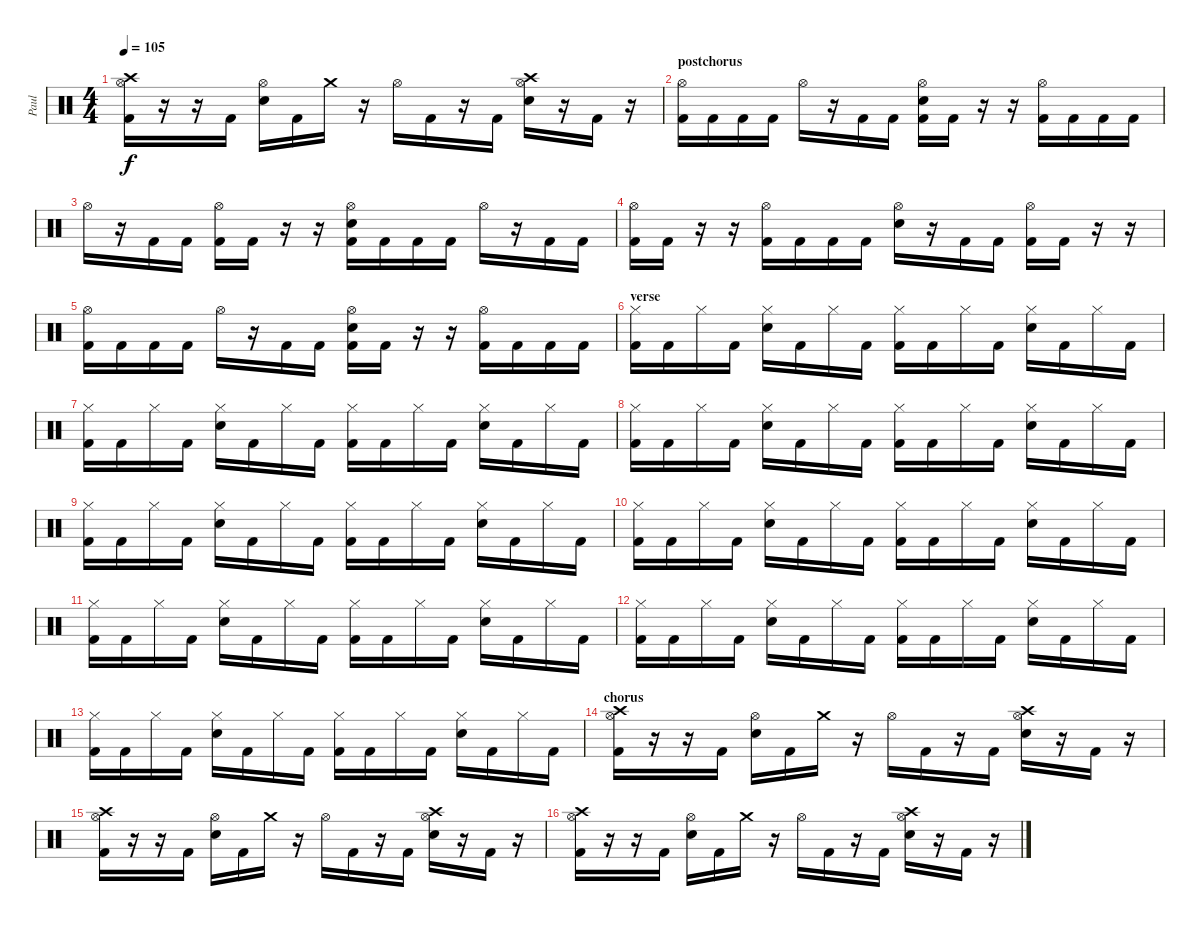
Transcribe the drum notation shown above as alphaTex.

\track ("Paul" "Paul") {instrument percussion}
\staff {score}
\articulation defaults
\ts (4 4)
\tempo 105
\clef neutral
\ks c
("Crash high (hit)" "Hi-Hat (open)" "Kick (hit) 2").16{dy f} r.16 r.16 "Kick (hit) 2".16 ("Hi-Hat (open)" "Snare (hit) 2").16 "Kick (hit) 2".16 "Crash medium (hit)".16 r.16 "Hi-Hat (open)".16 "Kick (hit) 2".16 r.16 "Kick (hit) 2".16 ("Crash high (hit)" "Hi-Hat (open)" "Snare (hit) 2").16 r.16 "Kick (hit) 2".16 r.16 |
\section ("" "postchorus")
("Hi-Hat (open)" "Kick (hit) 2").16 "Kick (hit) 2".16 "Kick (hit) 2".16 "Kick (hit) 2".16 "Hi-Hat (open)".16 r.16 "Kick (hit) 2".16 "Kick (hit) 2".16 ("Hi-Hat (open)" "Snare (hit) 2" "Kick (hit) 2").16 "Kick (hit) 2".16 r.16 r.16 ("Hi-Hat (open)" "Kick (hit) 2").16 "Kick (hit) 2".16 "Kick (hit) 2".16 "Kick (hit) 2".16 |
"Hi-Hat (open)".16 r.16 "Kick (hit) 2".16 "Kick (hit) 2".16 ("Hi-Hat (open)" "Kick (hit) 2").16 "Kick (hit) 2".16 r.16 r.16 ("Hi-Hat (open)" "Snare (hit) 2" "Kick (hit) 2").16 "Kick (hit) 2".16 "Kick (hit) 2".16 "Kick (hit) 2".16 "Hi-Hat (open)".16 r.16 "Kick (hit) 2".16 "Kick (hit) 2".16 |
("Hi-Hat (open)" "Kick (hit) 2").16 "Kick (hit) 2".16 r.16 r.16 ("Hi-Hat (open)" "Kick (hit) 2").16 "Kick (hit) 2".16 "Kick (hit) 2".16 "Kick (hit) 2".16 ("Hi-Hat (open)" "Snare (hit) 2").16 r.16 "Kick (hit) 2".16 "Kick (hit) 2".16 ("Hi-Hat (open)" "Kick (hit) 2").16 "Kick (hit) 2".16 r.16 r.16 |
("Hi-Hat (open)" "Kick (hit) 2").16 "Kick (hit) 2".16 "Kick (hit) 2".16 "Kick (hit) 2".16 "Hi-Hat (open)".16 r.16 "Kick (hit) 2".16 "Kick (hit) 2".16 ("Hi-Hat (open)" "Snare (hit) 2" "Kick (hit) 2").16 "Kick (hit) 2".16 r.16 r.16 ("Hi-Hat (open)" "Kick (hit) 2").16 "Kick (hit) 2".16 "Kick (hit) 2".16 "Kick (hit) 2".16 |
\section ("" "verse")
("Hi-Hat (closed)" "Kick (hit) 2").16 "Kick (hit) 2".16 "Hi-Hat (closed)".16 "Kick (hit) 2".16 ("Hi-Hat (closed)" "Snare (hit) 2").16 "Kick (hit) 2".16 "Hi-Hat (closed)".16 "Kick (hit) 2".16 ("Hi-Hat (closed)" "Kick (hit) 2").16 "Kick (hit) 2".16 "Hi-Hat (closed)".16 "Kick (hit) 2".16 ("Hi-Hat (closed)" "Snare (hit) 2").16 "Kick (hit) 2".16 "Hi-Hat (closed)".16 "Kick (hit) 2".16 |
("Hi-Hat (closed)" "Kick (hit) 2").16 "Kick (hit) 2".16 "Hi-Hat (closed)".16 "Kick (hit) 2".16 ("Hi-Hat (closed)" "Snare (hit) 2").16 "Kick (hit) 2".16 "Hi-Hat (closed)".16 "Kick (hit) 2".16 ("Hi-Hat (closed)" "Kick (hit) 2").16 "Kick (hit) 2".16 "Hi-Hat (closed)".16 "Kick (hit) 2".16 ("Hi-Hat (closed)" "Snare (hit) 2").16 "Kick (hit) 2".16 "Hi-Hat (closed)".16 "Kick (hit) 2".16 |
("Hi-Hat (closed)" "Kick (hit) 2").16 "Kick (hit) 2".16 "Hi-Hat (closed)".16 "Kick (hit) 2".16 ("Hi-Hat (closed)" "Snare (hit) 2").16 "Kick (hit) 2".16 "Hi-Hat (closed)".16 "Kick (hit) 2".16 ("Hi-Hat (closed)" "Kick (hit) 2").16 "Kick (hit) 2".16 "Hi-Hat (closed)".16 "Kick (hit) 2".16 ("Hi-Hat (closed)" "Snare (hit) 2").16 "Kick (hit) 2".16 "Hi-Hat (closed)".16 "Kick (hit) 2".16 |
("Hi-Hat (closed)" "Kick (hit) 2").16 "Kick (hit) 2".16 "Hi-Hat (closed)".16 "Kick (hit) 2".16 ("Hi-Hat (closed)" "Snare (hit) 2").16 "Kick (hit) 2".16 "Hi-Hat (closed)".16 "Kick (hit) 2".16 ("Hi-Hat (closed)" "Kick (hit) 2").16 "Kick (hit) 2".16 "Hi-Hat (closed)".16 "Kick (hit) 2".16 ("Hi-Hat (closed)" "Snare (hit) 2").16 "Kick (hit) 2".16 "Hi-Hat (closed)".16 "Kick (hit) 2".16 |
("Hi-Hat (closed)" "Kick (hit) 2").16 "Kick (hit) 2".16 "Hi-Hat (closed)".16 "Kick (hit) 2".16 ("Hi-Hat (closed)" "Snare (hit) 2").16 "Kick (hit) 2".16 "Hi-Hat (closed)".16 "Kick (hit) 2".16 ("Hi-Hat (closed)" "Kick (hit) 2").16 "Kick (hit) 2".16 "Hi-Hat (closed)".16 "Kick (hit) 2".16 ("Hi-Hat (closed)" "Snare (hit) 2").16 "Kick (hit) 2".16 "Hi-Hat (closed)".16 "Kick (hit) 2".16 |
("Hi-Hat (closed)" "Kick (hit) 2").16 "Kick (hit) 2".16 "Hi-Hat (closed)".16 "Kick (hit) 2".16 ("Hi-Hat (closed)" "Snare (hit) 2").16 "Kick (hit) 2".16 "Hi-Hat (closed)".16 "Kick (hit) 2".16 ("Hi-Hat (closed)" "Kick (hit) 2").16 "Kick (hit) 2".16 "Hi-Hat (closed)".16 "Kick (hit) 2".16 ("Hi-Hat (closed)" "Snare (hit) 2").16 "Kick (hit) 2".16 "Hi-Hat (closed)".16 "Kick (hit) 2".16 |
("Hi-Hat (closed)" "Kick (hit) 2").16 "Kick (hit) 2".16 "Hi-Hat (closed)".16 "Kick (hit) 2".16 ("Hi-Hat (closed)" "Snare (hit) 2").16 "Kick (hit) 2".16 "Hi-Hat (closed)".16 "Kick (hit) 2".16 ("Hi-Hat (closed)" "Kick (hit) 2").16 "Kick (hit) 2".16 "Hi-Hat (closed)".16 "Kick (hit) 2".16 ("Hi-Hat (closed)" "Snare (hit) 2").16 "Kick (hit) 2".16 "Hi-Hat (closed)".16 "Kick (hit) 2".16 |
("Hi-Hat (closed)" "Kick (hit) 2").16 "Kick (hit) 2".16 "Hi-Hat (closed)".16 "Kick (hit) 2".16 ("Hi-Hat (closed)" "Snare (hit) 2").16 "Kick (hit) 2".16 "Hi-Hat (closed)".16 "Kick (hit) 2".16 ("Hi-Hat (closed)" "Kick (hit) 2").16 "Kick (hit) 2".16 "Hi-Hat (closed)".16 "Kick (hit) 2".16 ("Hi-Hat (closed)" "Snare (hit) 2").16 "Kick (hit) 2".16 "Hi-Hat (closed)".16 "Kick (hit) 2".16 |
\section ("" "chorus")
("Crash high (hit)" "Hi-Hat (open)" "Kick (hit) 2").16 r.16 r.16 "Kick (hit) 2".16 ("Hi-Hat (open)" "Snare (hit) 2").16 "Kick (hit) 2".16 "Crash medium (hit)".16 r.16 "Hi-Hat (open)".16 "Kick (hit) 2".16 r.16 "Kick (hit) 2".16 ("Crash high (hit)" "Hi-Hat (open)" "Snare (hit) 2").16 r.16 "Kick (hit) 2".16 r.16 |
("Crash high (hit)" "Hi-Hat (open)" "Kick (hit) 2").16 r.16 r.16 "Kick (hit) 2".16 ("Hi-Hat (open)" "Snare (hit) 2").16 "Kick (hit) 2".16 "Crash medium (hit)".16 r.16 "Hi-Hat (open)".16 "Kick (hit) 2".16 r.16 "Kick (hit) 2".16 ("Crash high (hit)" "Hi-Hat (open)" "Snare (hit) 2").16 r.16 "Kick (hit) 2".16 r.16 |
("Crash high (hit)" "Hi-Hat (open)" "Kick (hit) 2").16 r.16 r.16 "Kick (hit) 2".16 ("Hi-Hat (open)" "Snare (hit) 2").16 "Kick (hit) 2".16 "Crash medium (hit)".16 r.16 "Hi-Hat (open)".16 "Kick (hit) 2".16 r.16 "Kick (hit) 2".16 ("Crash high (hit)" "Hi-Hat (open)" "Snare (hit) 2").16 r.16 "Kick (hit) 2".16 r.16
